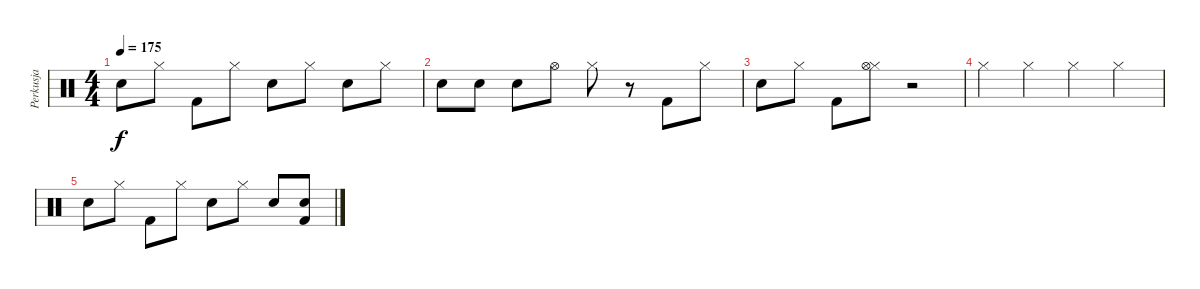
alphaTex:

\track ("Perkusja" "Perkusja") {instrument percussion}
\staff {score}
\articulation defaults
\ts (4 4)
\tempo 175
\clef neutral
\ks c "Snare (hit) 2".8{dy f} "Hi-Hat (closed)".8 "Kick (hit) 2".8 "Hi-Hat (closed)".8 "Snare (hit) 2".8 "Hi-Hat (closed)".8 "Snare (hit) 2".8 "Hi-Hat (closed)".8
|
"Snare (hit) 2".8 "Snare (hit) 2".8 "Snare (hit) 2".8 "Hi-Hat (open)".8 "Hi-Hat (closed)".8 r.8 "Kick (hit) 2".8 "Hi-Hat (closed)".8 |
"Snare (hit) 2".8 "Hi-Hat (closed)".8 "Kick (hit) 2".8 ("Hi-Hat (closed)" "Hi-Hat (open)").8 r.2 |
"Hi-Hat (closed)".4 "Hi-Hat (closed)".4 "Hi-Hat (closed)".4 "Hi-Hat (closed)".4 |
"Snare (hit) 2".8 "Hi-Hat (closed)".8 "Kick (hit) 2".8 "Hi-Hat (closed)".8 "Snare (hit) 2".8 "Hi-Hat (closed)".8 "Snare (hit) 2".8 ("Snare (hit) 2" "Kick (hit) 2").8
